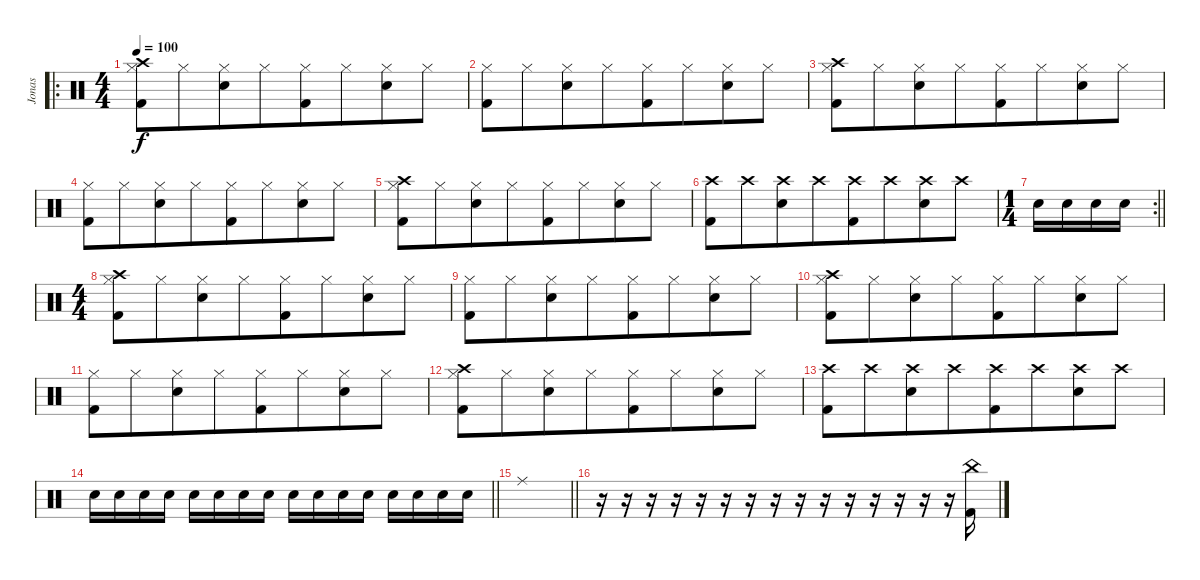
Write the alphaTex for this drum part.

\track ("Jonas" "Jonas") {instrument percussion}
\staff {score}
\articulation defaults
\ro
\ts (4 4)
\tempo 100
\clef neutral
\ks c
("Crash high (hit)" "Hi-Hat (closed)" "Kick (hit) 2").8{dy f beam merge} "Hi-Hat (closed)".8{beam merge} ("Hi-Hat (closed)" "Snare (hit) 2").8{beam merge} "Hi-Hat (closed)".8{beam merge} ("Hi-Hat (closed)" "Kick (hit) 2").8{beam merge} "Hi-Hat (closed)".8{beam merge} ("Hi-Hat (closed)" "Snare (hit) 2").8{beam merge} "Hi-Hat (closed)".8 |
("Hi-Hat (closed)" "Kick (hit) 2").8{beam merge} "Hi-Hat (closed)".8{beam merge} ("Hi-Hat (closed)" "Snare (hit) 2").8{beam merge} "Hi-Hat (closed)".8{beam merge} ("Hi-Hat (closed)" "Kick (hit) 2").8{beam merge} "Hi-Hat (closed)".8{beam merge} ("Hi-Hat (closed)" "Snare (hit) 2").8{beam merge} "Hi-Hat (closed)".8 |
("Crash high (hit)" "Hi-Hat (closed)" "Kick (hit) 2").8{beam merge} "Hi-Hat (closed)".8{beam merge} ("Hi-Hat (closed)" "Snare (hit) 2").8{beam merge} "Hi-Hat (closed)".8{beam merge} ("Hi-Hat (closed)" "Kick (hit) 2").8{beam merge} "Hi-Hat (closed)".8{beam merge} ("Hi-Hat (closed)" "Snare (hit) 2").8{beam merge} "Hi-Hat (closed)".8 |
("Hi-Hat (closed)" "Kick (hit) 2").8{beam merge} "Hi-Hat (closed)".8{beam merge} ("Hi-Hat (closed)" "Snare (hit) 2").8{beam merge} "Hi-Hat (closed)".8{beam merge} ("Hi-Hat (closed)" "Kick (hit) 2").8{beam merge} "Hi-Hat (closed)".8{beam merge} ("Hi-Hat (closed)" "Snare (hit) 2").8{beam merge} "Hi-Hat (closed)".8 |
("Crash high (hit)" "Hi-Hat (closed)" "Kick (hit) 2").8{beam merge} "Hi-Hat (closed)".8{beam merge} ("Hi-Hat (closed)" "Snare (hit) 2").8{beam merge} "Hi-Hat (closed)".8{beam merge} ("Hi-Hat (closed)" "Kick (hit) 2").8{beam merge} "Hi-Hat (closed)".8{beam merge} ("Hi-Hat (closed)" "Snare (hit) 2").8{beam merge} "Hi-Hat (closed)".8 |
("Crash high (hit)" "Kick (hit) 2").8{beam merge} "Crash high (hit)".8{beam merge} ("Crash high (hit)" "Snare (hit) 2").8{beam merge} "Crash high (hit)".8{beam merge} ("Crash high (hit)" "Kick (hit) 2").8{beam merge} "Crash high (hit)".8{beam merge} ("Crash high (hit)" "Snare (hit) 2").8{beam merge} "Crash high (hit)".8 |
\rc 2
\ts (1 4)
\barLineRight lightlight "Snare (hit) 2".16{beam merge} "Snare (hit) 2".16{beam merge} "Snare (hit) 2".16{beam merge} "Snare (hit) 2".16
|
\ts (4 4)
("Crash high (hit)" "Hi-Hat (closed)" "Kick (hit) 2").8{beam merge} "Hi-Hat (closed)".8{beam merge} ("Hi-Hat (closed)" "Snare (hit) 2").8{beam merge} "Hi-Hat (closed)".8{beam merge} ("Hi-Hat (closed)" "Kick (hit) 2").8{beam merge} "Hi-Hat (closed)".8{beam merge} ("Hi-Hat (closed)" "Snare (hit) 2").8{beam merge} "Hi-Hat (closed)".8 |
("Hi-Hat (closed)" "Kick (hit) 2").8{beam merge} "Hi-Hat (closed)".8{beam merge} ("Hi-Hat (closed)" "Snare (hit) 2").8{beam merge} "Hi-Hat (closed)".8{beam merge} ("Hi-Hat (closed)" "Kick (hit) 2").8{beam merge} "Hi-Hat (closed)".8{beam merge} ("Hi-Hat (closed)" "Snare (hit) 2").8{beam merge} "Hi-Hat (closed)".8 |
("Crash high (hit)" "Hi-Hat (closed)" "Kick (hit) 2").8{beam merge} "Hi-Hat (closed)".8{beam merge} ("Hi-Hat (closed)" "Snare (hit) 2").8{beam merge} "Hi-Hat (closed)".8{beam merge} ("Hi-Hat (closed)" "Kick (hit) 2").8{beam merge} "Hi-Hat (closed)".8{beam merge} ("Hi-Hat (closed)" "Snare (hit) 2").8{beam merge} "Hi-Hat (closed)".8 |
("Hi-Hat (closed)" "Kick (hit) 2").8{beam merge} "Hi-Hat (closed)".8{beam merge} ("Hi-Hat (closed)" "Snare (hit) 2").8{beam merge} "Hi-Hat (closed)".8{beam merge} ("Hi-Hat (closed)" "Kick (hit) 2").8{beam merge} "Hi-Hat (closed)".8{beam merge} ("Hi-Hat (closed)" "Snare (hit) 2").8{beam merge} "Hi-Hat (closed)".8 |
("Crash high (hit)" "Hi-Hat (closed)" "Kick (hit) 2").8{beam merge} "Hi-Hat (closed)".8{beam merge} ("Hi-Hat (closed)" "Snare (hit) 2").8{beam merge} "Hi-Hat (closed)".8{beam merge} ("Hi-Hat (closed)" "Kick (hit) 2").8{beam merge} "Hi-Hat (closed)".8{beam merge} ("Hi-Hat (closed)" "Snare (hit) 2").8{beam merge} "Hi-Hat (closed)".8 |
("Crash high (hit)" "Kick (hit) 2").8{beam merge} "Crash high (hit)".8{beam merge} ("Crash high (hit)" "Snare (hit) 2").8{beam merge} "Crash high (hit)".8{beam merge} ("Crash high (hit)" "Kick (hit) 2").8{beam merge} "Crash high (hit)".8{beam merge} ("Crash high (hit)" "Snare (hit) 2").8{beam merge} "Crash high (hit)".8 |
\barLineRight lightlight "Snare (hit) 2".16{beam merge} "Snare (hit) 2".16{beam merge} "Snare (hit) 2".16{beam merge} "Snare (hit) 2".16 "Snare (hit) 2".16 "Snare (hit) 2".16 "Snare (hit) 2".16 "Snare (hit) 2".16 "Snare (hit) 2".16 "Snare (hit) 2".16 "Snare (hit) 2".16 "Snare (hit) 2".16 "Snare (hit) 2".16 "Snare (hit) 2".16 "Snare (hit) 2".16 "Snare (hit) 2".16
|
\barLineRight lightlight "Ride (middle)".1
|
r.16 r.16 r.16 r.16 r.16 r.16 r.16 r.16 r.16 r.16 r.16 r.16 r.16 r.16 r.16 ("China (hit)" "Kick (hit) 2").16
